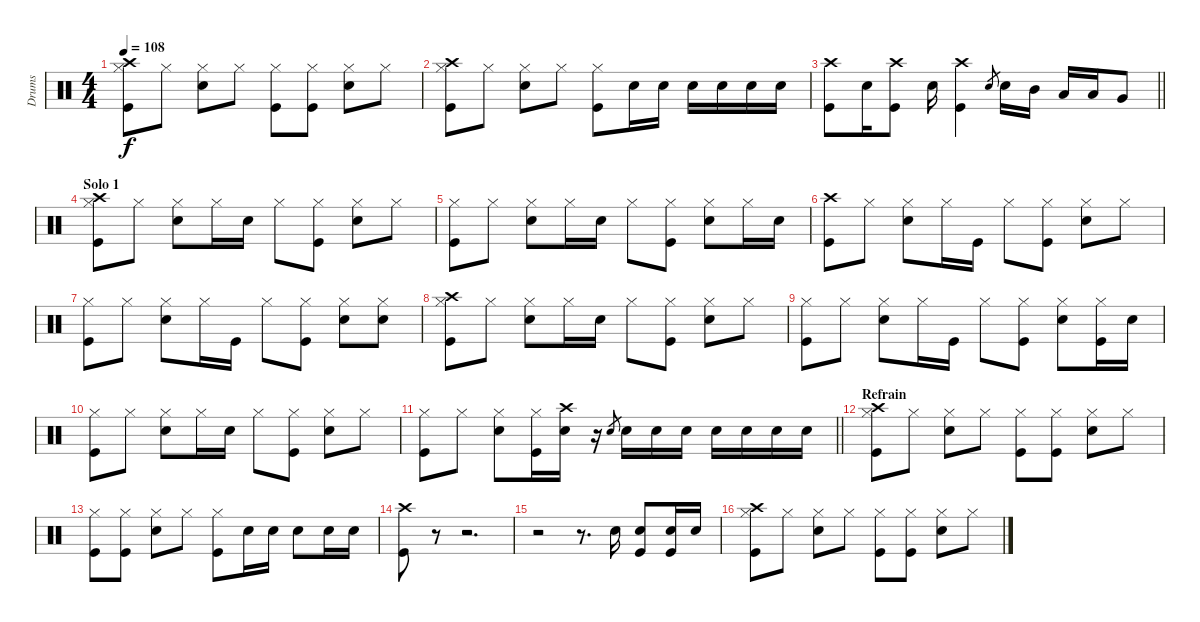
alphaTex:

\track ("Drums" "Drums") {instrument percussion}
\staff {score}
\articulation defaults
\ts (4 4)
\tempo 108
\clef neutral
\ks c
("Kick (hit)" "Hi-Hat (closed)" "Crash high (hit)").8{dy f} "Hi-Hat (closed)".8 ("Snare (hit) 2" "Hi-Hat (closed)").8 "Hi-Hat (closed)".8 ("Kick (hit)" "Hi-Hat (closed)").8 ("Hi-Hat (closed)" "Kick (hit)").8 ("Snare (hit) 2" "Hi-Hat (closed)").8 "Hi-Hat (closed)".8 |
("Kick (hit)" "Hi-Hat (closed)" "Crash high (hit)").8 "Hi-Hat (closed)".8 ("Snare (hit) 2" "Hi-Hat (closed)").8 "Hi-Hat (closed)".8 ("Kick (hit)" "Hi-Hat (closed)").8 "Snare (hit) 2".16 "Snare (hit) 2".16 "Snare (hit) 2".16 "Snare (hit) 2".16 "Snare (hit) 2".16 "Snare (hit) 2".16 |
\barLineRight lightlight
("Kick (hit)" "Crash high (hit)").8 "Snare (hit) 2".16 ("Kick (hit)" "Crash high (hit)").8 "Snare (hit) 2".16 ("Kick (hit)" "Crash high (hit)").4 "Snare (hit) 2".8{gr} "Snare (hit) 2".16 "Mid Tom (hit)".16 "Low Tom (hit)".16 "Low Tom (hit)".16 "Very Low Tom (hit)".8 |
\section ("" "Solo 1")
("Hi-Hat (closed)" "Kick (hit)" "Crash high (hit)").8 "Hi-Hat (closed)".8 ("Snare (hit) 2" "Hi-Hat (closed)").8 "Hi-Hat (closed)".16 "Snare (hit) 2".16 "Hi-Hat (closed)".8 ("Kick (hit)" "Hi-Hat (closed)").8 ("Hi-Hat (closed)" "Snare (hit) 2").8 "Hi-Hat (closed)".8 |
("Hi-Hat (closed)" "Kick (hit)").8 "Hi-Hat (closed)".8 ("Snare (hit) 2" "Hi-Hat (closed)").8 "Hi-Hat (closed)".16 "Snare (hit) 2".16 "Hi-Hat (closed)".8 ("Kick (hit)" "Hi-Hat (closed)").8 ("Hi-Hat (closed)" "Snare (hit) 2").8 "Hi-Hat (closed)".16 "Snare (hit) 2".16 |
("Crash high (hit)" "Kick (hit)").8 "Hi-Hat (closed)".8 ("Snare (hit) 2" "Hi-Hat (closed)").8 "Hi-Hat (closed)".16 "Kick (hit)".16 "Hi-Hat (closed)".8 ("Kick (hit)" "Hi-Hat (closed)").8 ("Hi-Hat (closed)" "Snare (hit) 2").8 "Hi-Hat (closed)".8 |
("Hi-Hat (closed)" "Kick (hit)").8 "Hi-Hat (closed)".8 ("Snare (hit) 2" "Hi-Hat (closed)").8 "Hi-Hat (closed)".16 "Kick (hit)".16 "Hi-Hat (closed)".8 ("Kick (hit)" "Hi-Hat (closed)").8 ("Hi-Hat (closed)" "Snare (hit) 2").8 ("Hi-Hat (closed)" "Snare (hit) 2").8 |
("Hi-Hat (closed)" "Kick (hit)" "Crash high (hit)").8 "Hi-Hat (closed)".8 ("Snare (hit) 2" "Hi-Hat (closed)").8 "Hi-Hat (closed)".16 "Snare (hit) 2".16 "Hi-Hat (closed)".8 ("Kick (hit)" "Hi-Hat (closed)").8 ("Hi-Hat (closed)" "Snare (hit) 2").8 "Hi-Hat (closed)".8 |
("Hi-Hat (closed)" "Kick (hit)").8 "Hi-Hat (closed)".8 ("Snare (hit) 2" "Hi-Hat (closed)").8 "Hi-Hat (closed)".16 "Kick (hit)".16 "Hi-Hat (closed)".8 ("Kick (hit)" "Hi-Hat (closed)").8 ("Hi-Hat (closed)" "Snare (hit) 2").8 ("Hi-Hat (closed)" "Kick (hit)").16 "Snare (hit) 2".16 |
("Hi-Hat (closed)" "Kick (hit)").8 "Hi-Hat (closed)".8 ("Snare (hit) 2" "Hi-Hat (closed)").8 "Hi-Hat (closed)".16 "Snare (hit) 2".16 "Hi-Hat (closed)".8 ("Kick (hit)" "Hi-Hat (closed)").8 ("Hi-Hat (closed)" "Snare (hit) 2").8 "Hi-Hat (closed)".8 |
\barLineRight lightlight
("Hi-Hat (closed)" "Kick (hit)").8 "Hi-Hat (closed)".8 ("Snare (hit) 2" "Hi-Hat (closed)").8 ("Hi-Hat (closed)" "Kick (hit)").16 ("Snare (hit) 2" "Crash high (hit)").16 r.16 "Snare (hit) 2".8{gr} "Snare (hit) 2".16 "Snare (hit) 2".16 "Snare (hit) 2".16 "Snare (hit) 2".16 "Snare (hit) 2".16 "Snare (hit) 2".16 "Snare (hit) 2".16 |
\section ("" "Refrain")
("Kick (hit)" "Hi-Hat (closed)" "Crash high (hit)").8 "Hi-Hat (closed)".8 ("Snare (hit) 2" "Hi-Hat (closed)").8 "Hi-Hat (closed)".8 ("Kick (hit)" "Hi-Hat (closed)").8 ("Hi-Hat (closed)" "Kick (hit)").8 ("Hi-Hat (closed)" "Snare (hit) 2").8 "Hi-Hat (closed)".8 |
("Kick (hit)" "Hi-Hat (closed)").8 ("Hi-Hat (closed)" "Kick (hit)").8 ("Snare (hit) 2" "Hi-Hat (closed)").8 "Hi-Hat (closed)".8 ("Hi-Hat (closed)" "Kick (hit)").8 "Snare (hit) 2".16 "Snare (hit) 2".16 "Snare (hit) 2".8 "Snare (hit) 2".16 "Snare (hit) 2".16 |
("Kick (hit)" "Crash high (hit)").8 r.8 r.2{d} |
r.2 r.8{d} "Snare (hit) 2".16 ("Snare (hit) 2" "Kick (hit)").8 ("Snare (hit) 2" "Kick (hit)").16 "Snare (hit) 2".16 |
("Kick (hit)" "Hi-Hat (closed)" "Crash high (hit)").8 "Hi-Hat (closed)".8 ("Snare (hit) 2" "Hi-Hat (closed)").8 "Hi-Hat (closed)".8 ("Kick (hit)" "Hi-Hat (closed)").8 ("Hi-Hat (closed)" "Kick (hit)").8 ("Snare (hit) 2" "Hi-Hat (closed)").8 "Hi-Hat (closed)".8
